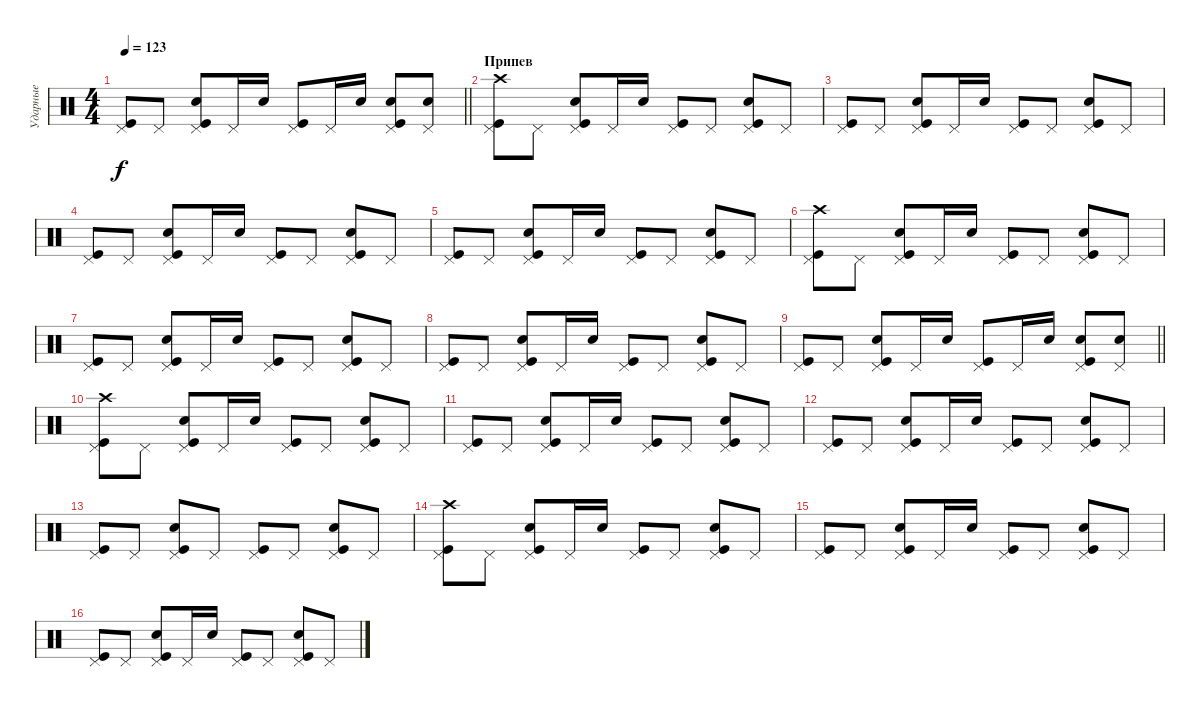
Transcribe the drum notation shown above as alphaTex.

\track ("Ударные" "Ударные") {instrument percussion}
\staff {score}
\articulation defaults
\ts (4 4)
\tempo 123
\clef neutral
\barLineRight lightlight
\ks c
("Kick (hit)" "Pedal Hi-Hat (hit)").8{dy f} "Pedal Hi-Hat (hit)".8 ("Kick (hit)" "Pedal Hi-Hat (hit)" "Snare (hit) 2").8 "Pedal Hi-Hat (hit)".16 "Snare (hit) 2".16 ("Kick (hit)" "Pedal Hi-Hat (hit)").8 "Pedal Hi-Hat (hit)".16 "Snare (hit) 2".16 ("Kick (hit)" "Pedal Hi-Hat (hit)" "Snare (hit) 2").8 ("Pedal Hi-Hat (hit)" "Snare (hit) 2").8 |
\section ("" "Припев")
("Kick (hit)" "Pedal Hi-Hat (hit)" "Crash high (hit)").8 "Pedal Hi-Hat (hit)".8 ("Kick (hit)" "Pedal Hi-Hat (hit)" "Snare (hit) 2").8 "Pedal Hi-Hat (hit)".16 "Snare (hit) 2".16 ("Kick (hit)" "Pedal Hi-Hat (hit)").8 "Pedal Hi-Hat (hit)".8 ("Kick (hit)" "Pedal Hi-Hat (hit)" "Snare (hit) 2").8 "Pedal Hi-Hat (hit)".8 |
("Kick (hit)" "Pedal Hi-Hat (hit)").8 "Pedal Hi-Hat (hit)".8 ("Kick (hit)" "Pedal Hi-Hat (hit)" "Snare (hit) 2").8 "Pedal Hi-Hat (hit)".16 "Snare (hit) 2".16 ("Kick (hit)" "Pedal Hi-Hat (hit)").8 "Pedal Hi-Hat (hit)".8 ("Kick (hit)" "Pedal Hi-Hat (hit)" "Snare (hit) 2").8 "Pedal Hi-Hat (hit)".8 |
("Kick (hit)" "Pedal Hi-Hat (hit)").8 "Pedal Hi-Hat (hit)".8 ("Kick (hit)" "Pedal Hi-Hat (hit)" "Snare (hit) 2").8 "Pedal Hi-Hat (hit)".16 "Snare (hit) 2".16 ("Kick (hit)" "Pedal Hi-Hat (hit)").8 "Pedal Hi-Hat (hit)".8 ("Kick (hit)" "Pedal Hi-Hat (hit)" "Snare (hit) 2").8 "Pedal Hi-Hat (hit)".8 |
("Kick (hit)" "Pedal Hi-Hat (hit)").8 "Pedal Hi-Hat (hit)".8 ("Kick (hit)" "Pedal Hi-Hat (hit)" "Snare (hit) 2").8 "Pedal Hi-Hat (hit)".16 "Snare (hit) 2".16 ("Kick (hit)" "Pedal Hi-Hat (hit)").8 "Pedal Hi-Hat (hit)".8 ("Kick (hit)" "Pedal Hi-Hat (hit)" "Snare (hit) 2").8 "Pedal Hi-Hat (hit)".8 |
("Kick (hit)" "Pedal Hi-Hat (hit)" "Crash high (hit)").8 "Pedal Hi-Hat (hit)".8 ("Kick (hit)" "Pedal Hi-Hat (hit)" "Snare (hit) 2").8 "Pedal Hi-Hat (hit)".16 "Snare (hit) 2".16 ("Kick (hit)" "Pedal Hi-Hat (hit)").8 "Pedal Hi-Hat (hit)".8 ("Kick (hit)" "Pedal Hi-Hat (hit)" "Snare (hit) 2").8 "Pedal Hi-Hat (hit)".8 |
("Kick (hit)" "Pedal Hi-Hat (hit)").8 "Pedal Hi-Hat (hit)".8 ("Kick (hit)" "Pedal Hi-Hat (hit)" "Snare (hit) 2").8 "Pedal Hi-Hat (hit)".16 "Snare (hit) 2".16 ("Kick (hit)" "Pedal Hi-Hat (hit)").8 "Pedal Hi-Hat (hit)".8 ("Kick (hit)" "Pedal Hi-Hat (hit)" "Snare (hit) 2").8 "Pedal Hi-Hat (hit)".8 |
("Kick (hit)" "Pedal Hi-Hat (hit)").8 "Pedal Hi-Hat (hit)".8 ("Kick (hit)" "Pedal Hi-Hat (hit)" "Snare (hit) 2").8 "Pedal Hi-Hat (hit)".16 "Snare (hit) 2".16 ("Kick (hit)" "Pedal Hi-Hat (hit)").8 "Pedal Hi-Hat (hit)".8 ("Kick (hit)" "Pedal Hi-Hat (hit)" "Snare (hit) 2").8 "Pedal Hi-Hat (hit)".8 |
\barLineRight lightlight
("Kick (hit)" "Pedal Hi-Hat (hit)").8 "Pedal Hi-Hat (hit)".8 ("Kick (hit)" "Pedal Hi-Hat (hit)" "Snare (hit) 2").8 "Pedal Hi-Hat (hit)".16 "Snare (hit) 2".16 ("Kick (hit)" "Pedal Hi-Hat (hit)").8 "Pedal Hi-Hat (hit)".16 "Snare (hit) 2".16 ("Kick (hit)" "Pedal Hi-Hat (hit)" "Snare (hit) 2").8 ("Pedal Hi-Hat (hit)" "Snare (hit) 2").8 |
("Kick (hit)" "Pedal Hi-Hat (hit)" "Crash high (hit)").8 "Pedal Hi-Hat (hit)".8 ("Kick (hit)" "Pedal Hi-Hat (hit)" "Snare (hit) 2").8 "Pedal Hi-Hat (hit)".16 "Snare (hit) 2".16 ("Kick (hit)" "Pedal Hi-Hat (hit)").8 "Pedal Hi-Hat (hit)".8 ("Kick (hit)" "Pedal Hi-Hat (hit)" "Snare (hit) 2").8 "Pedal Hi-Hat (hit)".8 |
("Kick (hit)" "Pedal Hi-Hat (hit)").8 "Pedal Hi-Hat (hit)".8 ("Kick (hit)" "Pedal Hi-Hat (hit)" "Snare (hit) 2").8 "Pedal Hi-Hat (hit)".16 "Snare (hit) 2".16 ("Kick (hit)" "Pedal Hi-Hat (hit)").8 "Pedal Hi-Hat (hit)".8 ("Kick (hit)" "Pedal Hi-Hat (hit)" "Snare (hit) 2").8 "Pedal Hi-Hat (hit)".8 |
("Kick (hit)" "Pedal Hi-Hat (hit)").8 "Pedal Hi-Hat (hit)".8 ("Kick (hit)" "Pedal Hi-Hat (hit)" "Snare (hit) 2").8 "Pedal Hi-Hat (hit)".16 "Snare (hit) 2".16 ("Kick (hit)" "Pedal Hi-Hat (hit)").8 "Pedal Hi-Hat (hit)".8 ("Kick (hit)" "Pedal Hi-Hat (hit)" "Snare (hit) 2").8 "Pedal Hi-Hat (hit)".8 |
("Kick (hit)" "Pedal Hi-Hat (hit)").8 "Pedal Hi-Hat (hit)".8 ("Kick (hit)" "Pedal Hi-Hat (hit)" "Snare (hit) 2").8 "Pedal Hi-Hat (hit)".8 ("Kick (hit)" "Pedal Hi-Hat (hit)").8 "Pedal Hi-Hat (hit)".8 ("Kick (hit)" "Pedal Hi-Hat (hit)" "Snare (hit) 2").8 "Pedal Hi-Hat (hit)".8 |
("Kick (hit)" "Pedal Hi-Hat (hit)" "Crash high (hit)").8 "Pedal Hi-Hat (hit)".8 ("Kick (hit)" "Pedal Hi-Hat (hit)" "Snare (hit) 2").8 "Pedal Hi-Hat (hit)".16 "Snare (hit) 2".16 ("Kick (hit)" "Pedal Hi-Hat (hit)").8 "Pedal Hi-Hat (hit)".8 ("Kick (hit)" "Pedal Hi-Hat (hit)" "Snare (hit) 2").8 "Pedal Hi-Hat (hit)".8 |
("Kick (hit)" "Pedal Hi-Hat (hit)").8 "Pedal Hi-Hat (hit)".8 ("Kick (hit)" "Pedal Hi-Hat (hit)" "Snare (hit) 2").8 "Pedal Hi-Hat (hit)".16 "Snare (hit) 2".16 ("Kick (hit)" "Pedal Hi-Hat (hit)").8 "Pedal Hi-Hat (hit)".8 ("Kick (hit)" "Pedal Hi-Hat (hit)" "Snare (hit) 2").8 "Pedal Hi-Hat (hit)".8 |
("Kick (hit)" "Pedal Hi-Hat (hit)").8 "Pedal Hi-Hat (hit)".8 ("Kick (hit)" "Pedal Hi-Hat (hit)" "Snare (hit) 2").8 "Pedal Hi-Hat (hit)".16 "Snare (hit) 2".16 ("Kick (hit)" "Pedal Hi-Hat (hit)").8 "Pedal Hi-Hat (hit)".8 ("Kick (hit)" "Pedal Hi-Hat (hit)" "Snare (hit) 2").8 "Pedal Hi-Hat (hit)".8
